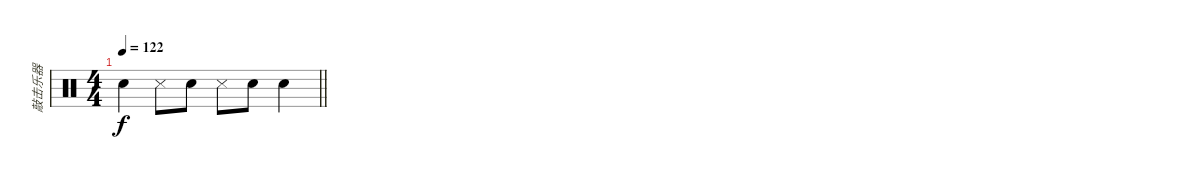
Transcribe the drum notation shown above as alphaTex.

\track ("敲击乐器" "敲击乐器") {instrument percussion}
\staff {score}
\articulation defaults
\ts (4 4)
\tempo 122
\clef neutral
\barLineRight lightlight
\ks c "Snare (hit) 2".4{dy f} "Snare (side stick) 3".8 "Snare (hit) 2".8 "Snare (side stick) 3".8 "Snare (hit) 2".8 "Snare (hit) 2".4
